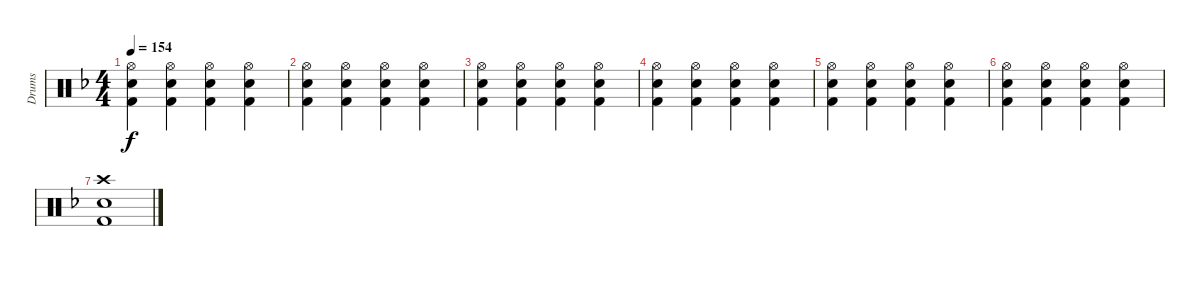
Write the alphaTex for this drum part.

\track ("Drums" "Drums") {instrument percussion}
\staff {score}
\articulation defaults
\ts (4 4)
\tempo 154
\clef neutral
\ks f
("Hi-Hat (open)" "Snare (hit) 2" "Kick (hit) 2").4{dy f} ("Hi-Hat (open)" "Snare (hit) 2" "Kick (hit) 2").4 ("Hi-Hat (open)" "Snare (hit) 2" "Kick (hit) 2").4 ("Hi-Hat (open)" "Snare (hit) 2" "Kick (hit) 2").4 |
("Hi-Hat (open)" "Snare (hit) 2" "Kick (hit) 2").4 ("Hi-Hat (open)" "Snare (hit) 2" "Kick (hit) 2").4 ("Hi-Hat (open)" "Snare (hit) 2" "Kick (hit) 2").4 ("Hi-Hat (open)" "Snare (hit) 2" "Kick (hit) 2").4 |
("Hi-Hat (open)" "Snare (hit) 2" "Kick (hit) 2").4{volume 0} ("Hi-Hat (open)" "Snare (hit) 2" "Kick (hit) 2").4 ("Hi-Hat (open)" "Snare (hit) 2" "Kick (hit) 2").4 ("Hi-Hat (open)" "Snare (hit) 2" "Kick (hit) 2").4 |
("Hi-Hat (open)" "Snare (hit) 2" "Kick (hit) 2").4 ("Hi-Hat (open)" "Snare (hit) 2" "Kick (hit) 2").4 ("Hi-Hat (open)" "Snare (hit) 2" "Kick (hit) 2").4 ("Hi-Hat (open)" "Snare (hit) 2" "Kick (hit) 2").4 |
("Hi-Hat (open)" "Snare (hit) 2" "Kick (hit) 2").4 ("Hi-Hat (open)" "Snare (hit) 2" "Kick (hit) 2").4 ("Hi-Hat (open)" "Snare (hit) 2" "Kick (hit) 2").4 ("Hi-Hat (open)" "Snare (hit) 2" "Kick (hit) 2").4 |
("Hi-Hat (open)" "Snare (hit) 2" "Kick (hit) 2").4 ("Hi-Hat (open)" "Snare (hit) 2" "Kick (hit) 2").4 ("Hi-Hat (open)" "Snare (hit) 2" "Kick (hit) 2").4 ("Hi-Hat (open)" "Snare (hit) 2" "Kick (hit) 2").4 |
("Crash high (hit)" "Snare (hit) 2" "Kick (hit) 2").1
